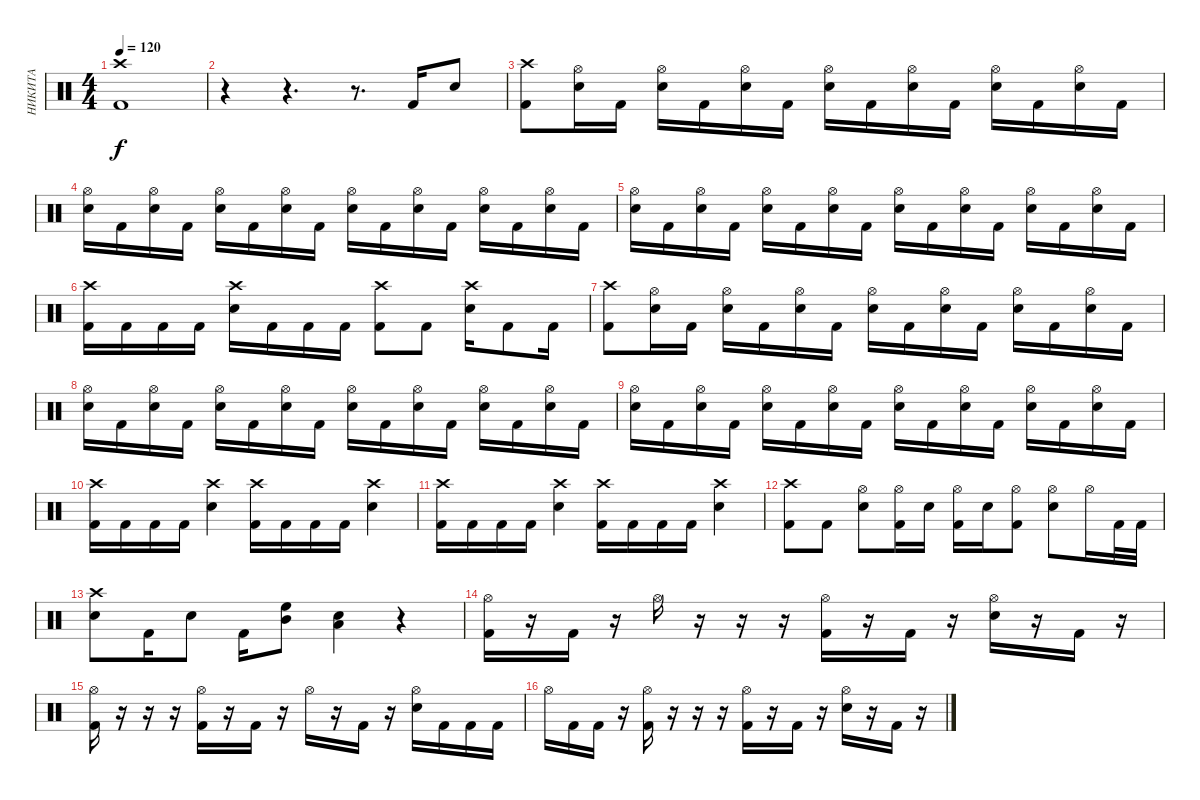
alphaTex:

\track ("НИКИТА" "НИКИТА") {instrument percussion}
\staff {score}
\articulation defaults
\ts (4 4)
\tempo 120
\clef neutral
\ks c
("Kick (hit) 2" "Crash high (hit)").1{dy f} |
r.4 r.4{d} r.8{d} "Kick (hit) 2".16 "Snare (hit) 2".8 |
("Kick (hit) 2" "Crash high (hit)").8 ("Snare (hit) 2" "Hi-Hat (open)").16 "Kick (hit) 2".16 ("Snare (hit) 2" "Hi-Hat (open)").16 "Kick (hit) 2".16 ("Snare (hit) 2" "Hi-Hat (open)").16 "Kick (hit) 2".16 ("Snare (hit) 2" "Hi-Hat (open)").16 "Kick (hit) 2".16 ("Snare (hit) 2" "Hi-Hat (open)").16 "Kick (hit) 2".16 ("Snare (hit) 2" "Hi-Hat (open)").16 "Kick (hit) 2".16 ("Snare (hit) 2" "Hi-Hat (open)").16 "Kick (hit) 2".16 |
("Snare (hit) 2" "Hi-Hat (open)").16 "Kick (hit) 2".16 ("Snare (hit) 2" "Hi-Hat (open)").16 "Kick (hit) 2".16 ("Snare (hit) 2" "Hi-Hat (open)").16 "Kick (hit) 2".16 ("Snare (hit) 2" "Hi-Hat (open)").16 "Kick (hit) 2".16 ("Snare (hit) 2" "Hi-Hat (open)").16 "Kick (hit) 2".16 ("Snare (hit) 2" "Hi-Hat (open)").16 "Kick (hit) 2".16 ("Snare (hit) 2" "Hi-Hat (open)").16 "Kick (hit) 2".16 ("Snare (hit) 2" "Hi-Hat (open)").16 "Kick (hit) 2".16 |
("Snare (hit) 2" "Hi-Hat (open)").16 "Kick (hit) 2".16 ("Snare (hit) 2" "Hi-Hat (open)").16 "Kick (hit) 2".16 ("Snare (hit) 2" "Hi-Hat (open)").16 "Kick (hit) 2".16 ("Snare (hit) 2" "Hi-Hat (open)").16 "Kick (hit) 2".16 ("Snare (hit) 2" "Hi-Hat (open)").16 "Kick (hit) 2".16 ("Snare (hit) 2" "Hi-Hat (open)").16 "Kick (hit) 2".16 ("Snare (hit) 2" "Hi-Hat (open)").16 "Kick (hit) 2".16 ("Snare (hit) 2" "Hi-Hat (open)").16 "Kick (hit) 2".16 |
("Kick (hit) 2" "Crash high (hit)").16 "Kick (hit) 2".16 "Kick (hit) 2".16 "Kick (hit) 2".16 ("Snare (hit) 2" "Crash high (hit)").16 "Kick (hit) 2".16 "Kick (hit) 2".16 "Kick (hit) 2".16 ("Kick (hit) 2" "Crash high (hit)").8 "Kick (hit) 2".8 ("Snare (hit) 2" "Crash high (hit)").16 "Kick (hit) 2".8 "Kick (hit) 2".16 |
("Kick (hit) 2" "Crash high (hit)").8 ("Snare (hit) 2" "Hi-Hat (open)").16 "Kick (hit) 2".16 ("Snare (hit) 2" "Hi-Hat (open)").16 "Kick (hit) 2".16 ("Snare (hit) 2" "Hi-Hat (open)").16 "Kick (hit) 2".16 ("Snare (hit) 2" "Hi-Hat (open)").16 "Kick (hit) 2".16 ("Snare (hit) 2" "Hi-Hat (open)").16 "Kick (hit) 2".16 ("Snare (hit) 2" "Hi-Hat (open)").16 "Kick (hit) 2".16 ("Snare (hit) 2" "Hi-Hat (open)").16 "Kick (hit) 2".16 |
("Snare (hit) 2" "Hi-Hat (open)").16 "Kick (hit) 2".16 ("Snare (hit) 2" "Hi-Hat (open)").16 "Kick (hit) 2".16 ("Snare (hit) 2" "Hi-Hat (open)").16 "Kick (hit) 2".16 ("Snare (hit) 2" "Hi-Hat (open)").16 "Kick (hit) 2".16 ("Snare (hit) 2" "Hi-Hat (open)").16 "Kick (hit) 2".16 ("Snare (hit) 2" "Hi-Hat (open)").16 "Kick (hit) 2".16 ("Snare (hit) 2" "Hi-Hat (open)").16 "Kick (hit) 2".16 ("Snare (hit) 2" "Hi-Hat (open)").16 "Kick (hit) 2".16 |
("Snare (hit) 2" "Hi-Hat (open)").16 "Kick (hit) 2".16 ("Snare (hit) 2" "Hi-Hat (open)").16 "Kick (hit) 2".16 ("Snare (hit) 2" "Hi-Hat (open)").16 "Kick (hit) 2".16 ("Snare (hit) 2" "Hi-Hat (open)").16 "Kick (hit) 2".16 ("Snare (hit) 2" "Hi-Hat (open)").16 "Kick (hit) 2".16 ("Snare (hit) 2" "Hi-Hat (open)").16 "Kick (hit) 2".16 ("Snare (hit) 2" "Hi-Hat (open)").16 "Kick (hit) 2".16 ("Snare (hit) 2" "Hi-Hat (open)").16 "Kick (hit) 2".16 |
("Kick (hit) 2" "Crash high (hit)").16 "Kick (hit) 2".16 "Kick (hit) 2".16 "Kick (hit) 2".16 ("Snare (hit) 2" "Crash high (hit)").4 ("Kick (hit) 2" "Crash high (hit)").16 "Kick (hit) 2".16 "Kick (hit) 2".16 "Kick (hit) 2".16 ("Snare (hit) 2" "Crash high (hit)").4 |
("Kick (hit) 2" "Crash high (hit)").16 "Kick (hit) 2".16 "Kick (hit) 2".16 "Kick (hit) 2".16 ("Snare (hit) 2" "Crash high (hit)").4 ("Kick (hit) 2" "Crash high (hit)").16 "Kick (hit) 2".16 "Kick (hit) 2".16 "Kick (hit) 2".16 ("Snare (hit) 2" "Crash high (hit)").4 |
("Kick (hit) 2" "Crash high (hit)").8 "Kick (hit) 2".8 ("Snare (hit) 2" "Hi-Hat (open)").8 ("Kick (hit) 2" "Hi-Hat (open)").16 "Snare (hit) 2".16 ("Kick (hit) 2" "Hi-Hat (open)").16 "Snare (hit) 2".16 ("Kick (hit) 2" "Hi-Hat (open)").8 ("Snare (hit) 2" "Hi-Hat (open)").8 "Hi-Hat (open)".16 "Kick (hit) 2".32 "Kick (hit) 2".32 |
("Snare (hit) 2" "Crash high (hit)").8 "Kick (hit) 2".16 "Snare (hit) 2".8 "Kick (hit) 2".16 ("High Floor Tom (hit)" "Mid Tom (hit)").8 ("Low Tom (hit)" "Snare (hit) 2").4 r.4 |
("Hi-Hat (open)" "Kick (hit) 2").16 r.16 "Kick (hit) 2".16 r.16 "Hi-Hat (open)".16 r.16 r.16 r.16 ("Hi-Hat (open)" "Kick (hit) 2").16 r.16 "Kick (hit) 2".16 r.16 ("Hi-Hat (open)" "Snare (hit) 2").16 r.16 "Kick (hit) 2".16 r.16 |
("Hi-Hat (open)" "Kick (hit) 2").16 r.16 r.16 r.16 ("Hi-Hat (open)" "Kick (hit) 2").16 r.16 "Kick (hit) 2".16 r.16 "Hi-Hat (open)".16 r.16 "Kick (hit) 2".16 r.16 ("Hi-Hat (open)" "Snare (hit) 2").16 "Kick (hit) 2".16 "Kick (hit) 2".16 "Kick (hit) 2".16 |
"Hi-Hat (open)".16 "Kick (hit) 2".16 "Kick (hit) 2".16 r.16 ("Hi-Hat (open)" "Kick (hit) 2").16 r.16 r.16 r.16 ("Hi-Hat (open)" "Kick (hit) 2").16 r.16 "Kick (hit) 2".16 r.16 ("Hi-Hat (open)" "Snare (hit) 2").16 r.16 "Kick (hit) 2".16 r.16
